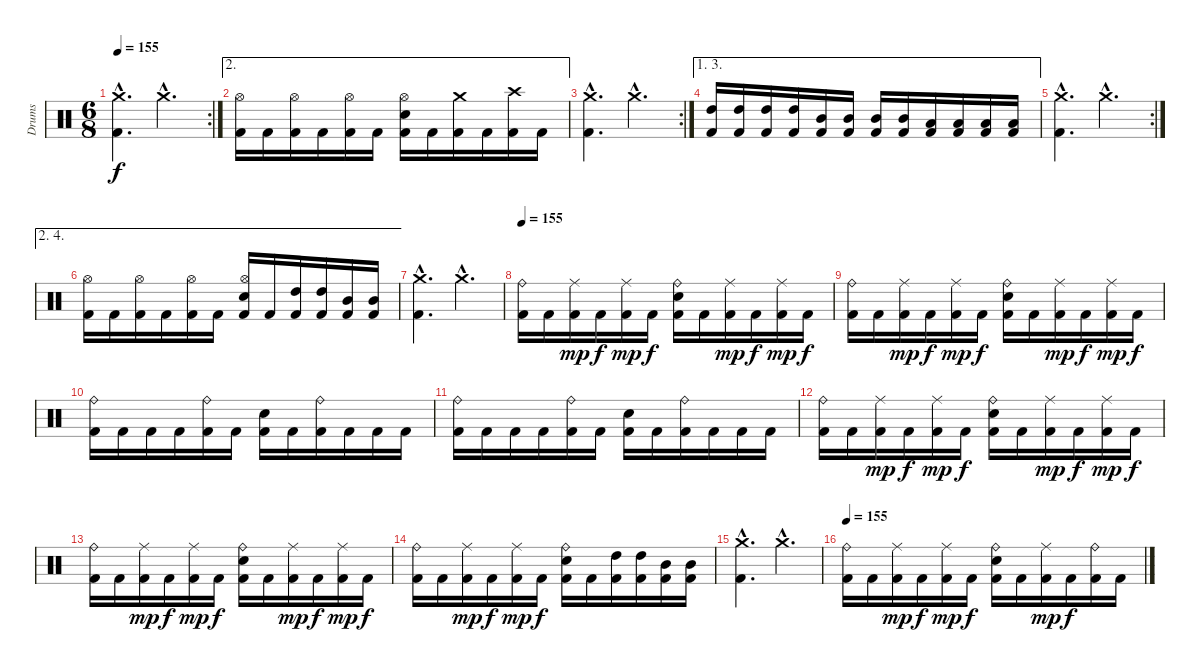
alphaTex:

\track ("Drums" "Drums") {instrument percussion}
\staff {score}
\articulation defaults
\rc 2
\ts (6 8)
\tempo 155
\clef neutral
\ks c
("Kick (hit) 2"{hac} "Crash medium (hit)"{hac}).4{d dy f} "Crash medium (hit)"{hac}.4{d} |
\ae 2
("Kick (hit) 2" "Hi-Hat (open)").16 "Kick (hit) 2".16 ("Kick (hit) 2" "Hi-Hat (open)").16 "Kick (hit) 2".16 ("Kick (hit) 2" "Hi-Hat (open)").16 "Kick (hit) 2".16 ("Kick (hit) 2" "Electric Snare (hit)" "Hi-Hat (open)").16 "Kick (hit) 2".16 ("Kick (hit) 2" "Crash medium (hit)").16 "Kick (hit) 2".16 ("Kick (hit) 2" "Crash high (hit)").16 "Kick (hit) 2".16 |
\rc 2
("Kick (hit) 2"{hac} "Crash medium (hit)"{hac}).4{d} "Crash medium (hit)"{hac}.4{d} |
\ae (1 3)
("Kick (hit) 2" "High Tom (hit)").16 ("Kick (hit) 2" "High Tom (hit)").16 ("Kick (hit) 2" "High Tom (hit)").16 ("Kick (hit) 2" "High Tom (hit)").16 ("Kick (hit) 2" "Mid Tom (hit)").16 ("Kick (hit) 2" "Mid Tom (hit)").16 ("Kick (hit) 2" "Mid Tom (hit)").16 ("Kick (hit) 2" "Mid Tom (hit)").16 ("Kick (hit) 2" "Low Tom (hit)").16 ("Kick (hit) 2" "Low Tom (hit)").16 ("Kick (hit) 2" "Low Tom (hit)").16 ("Kick (hit) 2" "Low Tom (hit)").16 |
\rc 2
("Kick (hit) 2"{hac} "Crash medium (hit)"{hac}).4{d} "Crash medium (hit)"{hac}.4{d} |
\ae (2 4)
("Kick (hit) 2" "Hi-Hat (open)").16 "Kick (hit) 2".16 ("Kick (hit) 2" "Hi-Hat (open)").16 "Kick (hit) 2".16 ("Kick (hit) 2" "Hi-Hat (open)").16 "Kick (hit) 2".16 ("Kick (hit) 2" "Electric Snare (hit)" "Hi-Hat (open)").16 "Kick (hit) 2".16 ("Kick (hit) 2" "High Tom (hit)").16 ("Kick (hit) 2" "High Tom (hit)").16 ("Kick (hit) 2" "Mid Tom (hit)").16 ("Kick (hit) 2" "Mid Tom (hit)").16 |
("Kick (hit) 2"{hac} "Crash medium (hit)"{hac}).4{d} "Crash medium (hit)"{hac}.4{d} |
\tempo 155
("Kick (hit) 2" "Ride (bell)").16 "Kick (hit) 2".16 ("Kick (hit) 2" "Ride (middle)").16{dy mp} "Kick (hit) 2".16{dy f} ("Kick (hit) 2" "Ride (middle)").16{dy mp} "Kick (hit) 2".16{dy f} ("Kick (hit) 2" "Electric Snare (hit)" "Ride (bell)").16 "Kick (hit) 2".16 ("Kick (hit) 2" "Ride (middle)").16{dy mp} "Kick (hit) 2".16{dy f} ("Kick (hit) 2" "Ride (middle)").16{dy mp} "Kick (hit) 2".16{dy f} |
("Kick (hit) 2" "Ride (bell)").16 "Kick (hit) 2".16 ("Kick (hit) 2" "Ride (middle)").16{dy mp} "Kick (hit) 2".16{dy f} ("Kick (hit) 2" "Ride (middle)").16{dy mp} "Kick (hit) 2".16{dy f} ("Kick (hit) 2" "Electric Snare (hit)" "Ride (bell)").16 "Kick (hit) 2".16 ("Kick (hit) 2" "Ride (middle)").16{dy mp} "Kick (hit) 2".16{dy f} ("Kick (hit) 2" "Ride (middle)").16{dy mp} "Kick (hit) 2".16{dy f} |
("Kick (hit) 2" "Ride (bell)").16 "Kick (hit) 2".16 "Kick (hit) 2".16 "Kick (hit) 2".16 ("Kick (hit) 2" "Ride (bell)").16 "Kick (hit) 2".16 ("Kick (hit) 2" "Electric Snare (hit)").16 "Kick (hit) 2".16 ("Kick (hit) 2" "Ride (bell)").16 "Kick (hit) 2".16 "Kick (hit) 2".16 "Kick (hit) 2".16 |
("Kick (hit) 2" "Ride (bell)").16 "Kick (hit) 2".16 "Kick (hit) 2".16 "Kick (hit) 2".16 ("Kick (hit) 2" "Ride (bell)").16 "Kick (hit) 2".16 ("Kick (hit) 2" "Electric Snare (hit)").16 "Kick (hit) 2".16 ("Kick (hit) 2" "Ride (bell)").16 "Kick (hit) 2".16 "Kick (hit) 2".16 "Kick (hit) 2".16 |
("Kick (hit) 2" "Ride (bell)").16 "Kick (hit) 2".16 ("Kick (hit) 2" "Ride (middle)").16{dy mp} "Kick (hit) 2".16{dy f} ("Kick (hit) 2" "Ride (middle)").16{dy mp} "Kick (hit) 2".16{dy f} ("Kick (hit) 2" "Electric Snare (hit)" "Ride (bell)").16 "Kick (hit) 2".16 ("Kick (hit) 2" "Ride (middle)").16{dy mp} "Kick (hit) 2".16{dy f} ("Kick (hit) 2" "Ride (middle)").16{dy mp} "Kick (hit) 2".16{dy f} |
("Kick (hit) 2" "Ride (bell)").16 "Kick (hit) 2".16 ("Kick (hit) 2" "Ride (middle)").16{dy mp} "Kick (hit) 2".16{dy f} ("Kick (hit) 2" "Ride (middle)").16{dy mp} "Kick (hit) 2".16{dy f} ("Kick (hit) 2" "Electric Snare (hit)" "Ride (bell)").16 "Kick (hit) 2".16 ("Kick (hit) 2" "Ride (middle)").16{dy mp} "Kick (hit) 2".16{dy f} ("Kick (hit) 2" "Ride (middle)").16{dy mp} "Kick (hit) 2".16{dy f} |
("Kick (hit) 2" "Ride (bell)").16 "Kick (hit) 2".16 ("Kick (hit) 2" "Ride (middle)").16{dy mp} "Kick (hit) 2".16{dy f} ("Kick (hit) 2" "Ride (middle)").16{dy mp} "Kick (hit) 2".16{dy f} ("Kick (hit) 2" "Electric Snare (hit)" "Ride (bell)").16 "Kick (hit) 2".16 ("Kick (hit) 2" "High Tom (hit)").16 ("Kick (hit) 2" "High Tom (hit)").16 ("Kick (hit) 2" "Mid Tom (hit)").16 ("Kick (hit) 2" "Mid Tom (hit)").16 |
("Kick (hit) 2"{hac} "Crash medium (hit)"{hac}).4{d} "Crash medium (hit)"{hac}.4{d} |
\tempo 155
("Kick (hit) 2" "Ride (bell)").16 "Kick (hit) 2".16 ("Kick (hit) 2" "Ride (middle)").16{dy mp} "Kick (hit) 2".16{dy f} ("Kick (hit) 2" "Ride (middle)").16{dy mp} "Kick (hit) 2".16{dy f} ("Kick (hit) 2" "Electric Snare (hit)" "Ride (bell)").16 "Kick (hit) 2".16 ("Kick (hit) 2" "Ride (middle)").16{dy mp} "Kick (hit) 2".16{dy f} ("Kick (hit) 2" "Ride (bell)").16 "Kick (hit) 2".16
